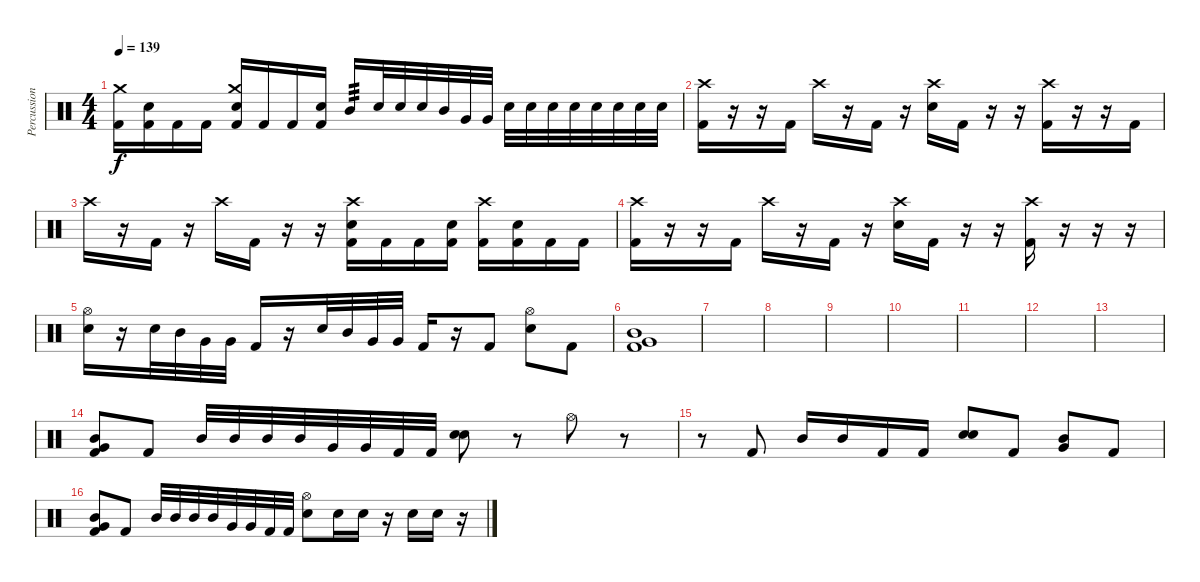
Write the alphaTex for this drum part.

\track ("Percussion" "Percussion") {instrument percussion}
\staff {score}
\articulation defaults
\ts (4 4)
\tempo 139
\clef neutral
\ks c
("Kick (hit) 2" "Crash medium (hit)").16{dy f} ("Kick (hit) 2" "Electric Snare (hit)").16 "Kick (hit) 2".16 "Kick (hit) 2".16 ("Kick (hit) 2" "Electric Snare (hit)" "Crash medium (hit)").16 "Kick (hit) 2".16 "Kick (hit) 2".16 ("Kick (hit) 2" "Electric Snare (hit)").16 "Mid Tom (hit)".16{tp 3} "Electric Snare (hit)".32 "Electric Snare (hit)".32 "Electric Snare (hit)".32 "Mid Tom (hit)".32 "Very Low Tom (hit)".32 "Very Low Tom (hit)".32 "Electric Snare (hit)".32 "Electric Snare (hit)".32 "Electric Snare (hit)".32 "Electric Snare (hit)".32 "Electric Snare (hit)".32 "Electric Snare (hit)".32 "Electric Snare (hit)".32 "Electric Snare (hit)".32 |
("Kick (hit) 2" "Crash high (hit)").16 r.16 r.16 "Kick (hit) 2".16 "Crash high (hit)".16 r.16 "Kick (hit) 2".16 r.16 ("Electric Snare (hit)" "Crash high (hit)").16 "Kick (hit) 2".16 r.16 r.16 ("Kick (hit) 2" "Crash high (hit)").16 r.16 r.16 "Kick (hit) 2".16 |
"Crash high (hit)".16 r.16 "Kick (hit) 2".16 r.16 "Crash high (hit)".16 "Kick (hit) 2".16 r.16 r.16 ("Kick (hit) 2" "Electric Snare (hit)" "Crash high (hit)").16 "Kick (hit) 2".16 "Kick (hit) 2".16 ("Kick (hit) 2" "Electric Snare (hit)").16 ("Kick (hit) 2" "Crash high (hit)").16 ("Kick (hit) 2" "Electric Snare (hit)").16 "Kick (hit) 2".16 "Kick (hit) 2".16 |
("Kick (hit) 2" "Crash high (hit)").16 r.16 r.16 "Kick (hit) 2".16 "Crash high (hit)".16 r.16 "Kick (hit) 2".16 r.16 ("Electric Snare (hit)" "Crash high (hit)").16 "Kick (hit) 2".16 r.16 r.16 ("Kick (hit) 2" "Crash high (hit)").16 r.16 r.16 r.16 |
("Electric Snare (hit)" "Hi-Hat (open)").16 r.16 "Electric Snare (hit)".32 "Mid Tom (hit)".32 "Very Low Tom (hit)".32 "Very Low Tom (hit)".32 "Kick (hit) 2".16 r.16 "Electric Snare (hit)".32 "Mid Tom (hit)".32 "Very Low Tom (hit)".32 "Very Low Tom (hit)".32 "Kick (hit) 2".16 r.16 "Kick (hit) 2".8 ("Electric Snare (hit)" "Hi-Hat (open)").8 "Kick (hit) 2".8 |
("Kick (hit) 2" "Very Low Tom (hit)" "Mid Tom (hit)").1 |
|
|
|
|
|
|
|
("Kick (hit) 2" "Very Low Tom (hit)" "Mid Tom (hit)").8 "Kick (hit) 2".8 "Mid Tom (hit)".32 "Mid Tom (hit)".32 "Mid Tom (hit)".32 "Mid Tom (hit)".32 "Very Low Tom (hit)".32 "Very Low Tom (hit)".32 "Kick (hit) 2".32 "Kick (hit) 2".32 ("Electric Snare (hit)" "Electric Snare (hit)").8 r.8 "Hi-Hat (open)".8 r.8 |
r.8 "Kick (hit) 2".8 "Mid Tom (hit)".16 "Mid Tom (hit)".16 "Kick (hit) 2".16 "Kick (hit) 2".16 ("Electric Snare (hit)" "Electric Snare (hit)").8 "Kick (hit) 2".8 ("Very Low Tom (hit)" "Mid Tom (hit)").8 "Kick (hit) 2".8 |
("Kick (hit) 2" "Very Low Tom (hit)" "Mid Tom (hit)").8 "Kick (hit) 2".8 "Mid Tom (hit)".32 "Mid Tom (hit)".32 "Mid Tom (hit)".32 "Mid Tom (hit)".32 "Very Low Tom (hit)".32 "Very Low Tom (hit)".32 "Kick (hit) 2".32 "Kick (hit) 2".32 ("Electric Snare (hit)" "Hi-Hat (open)").8 "Electric Snare (hit)".16 "Electric Snare (hit)".16 r.16 "Electric Snare (hit)".16 "Electric Snare (hit)".16 r.16
